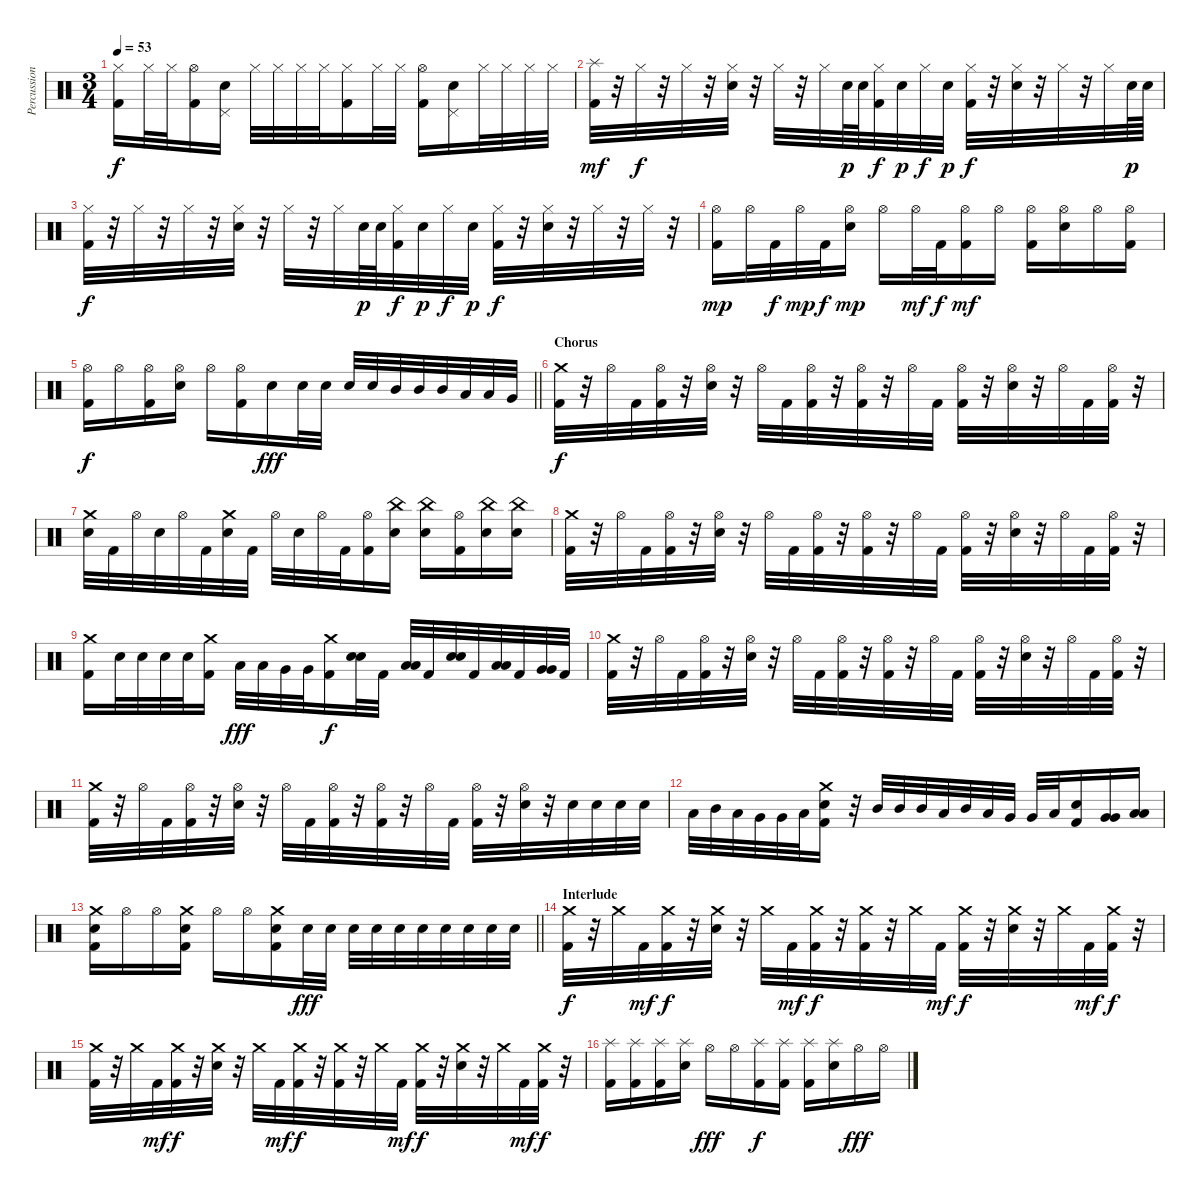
\track ("Percussion" "Percussion") {instrument percussion}
\staff {score}
\articulation defaults
\ts (3 4)
\tempo 53
\clef neutral
\ks c
("Hi-Hat (closed)" "Kick (hit) 2").16{dy f} "Hi-Hat (closed)".32 "Hi-Hat (closed)".32 ("Hi-Hat (open)" "Kick (hit) 2").16 ("Pedal Hi-Hat (hit)" "Snare (hit) 2").16 "Hi-Hat (closed)".32 "Hi-Hat (closed)".32 "Hi-Hat (closed)".32 "Hi-Hat (closed)".32 ("Hi-Hat (closed)" "Kick (hit) 2").16 "Hi-Hat (closed)".32 "Hi-Hat (closed)".32 ("Hi-Hat (open)" "Kick (hit) 2").16 ("Pedal Hi-Hat (hit)" "Snare (hit) 2").16 "Hi-Hat (closed)".32 "Hi-Hat (closed)".32 "Hi-Hat (closed)".32 "Hi-Hat (closed)".32 |
("Splash (hit)" "Kick (hit) 2").32{dy mf} r.32 "Hi-Hat (closed)".32{dy f} r.32 "Hi-Hat (closed)".32 r.32 ("Hi-Hat (closed)" "Snare (hit) 2").32 r.32 "Hi-Hat (closed)".32 r.32 "Hi-Hat (closed)".32 "Snare (hit) 2".64{dy p} "Snare (hit) 2".64 ("Hi-Hat (closed)" "Kick (hit) 2").32{dy f} "Snare (hit) 2".32{dy p} "Hi-Hat (closed)".32{dy f} "Snare (hit) 2".32{dy p} ("Hi-Hat (closed)" "Kick (hit) 2").32{dy f} r.32 ("Hi-Hat (closed)" "Snare (hit) 2").32 r.32 "Hi-Hat (closed)".32 r.32 "Hi-Hat (closed)".32 "Snare (hit) 2".64{dy p} "Snare (hit) 2".64 |
("Hi-Hat (closed)" "Kick (hit) 2").32{dy f} r.32 "Hi-Hat (closed)".32 r.32 "Hi-Hat (closed)".32 r.32 ("Hi-Hat (closed)" "Snare (hit) 2").32 r.32 "Hi-Hat (closed)".32 r.32 "Hi-Hat (closed)".32 "Snare (hit) 2".64{dy p} "Snare (hit) 2".64 ("Hi-Hat (closed)" "Kick (hit) 2").32{dy f} "Snare (hit) 2".32{dy p} "Hi-Hat (closed)".32{dy f} "Snare (hit) 2".32{dy p} ("Hi-Hat (closed)" "Kick (hit) 2").32{dy f} r.32 ("Hi-Hat (closed)" "Snare (hit) 2").32 r.32 "Hi-Hat (closed)".32 r.32 "Hi-Hat (closed)".32 r.32 |
("Hi-Hat (open)" "Kick (hit) 2").16{dy mp} "Hi-Hat (open)".32 "Kick (hit) 2".32{dy f} "Hi-Hat (open)".32{dy mp} "Kick (hit) 2".32{dy f} ("Hi-Hat (open)" "Snare (hit) 2").16{dy mp} "Hi-Hat (open)".16 "Hi-Hat (open)".32{dy mf} "Kick (hit) 2".32{dy f} ("Hi-Hat (open)" "Kick (hit) 2").16{dy mf} "Hi-Hat (open)".16 ("Hi-Hat (open)" "Kick (hit) 2").16 ("Hi-Hat (open)" "Snare (hit) 2").16 "Hi-Hat (open)".16 ("Hi-Hat (open)" "Kick (hit) 2").16 |
\barLineRight lightlight
("Hi-Hat (open)" "Kick (hit) 2").16{dy f} "Hi-Hat (open)".16 ("Hi-Hat (open)" "Kick (hit) 2").16 ("Hi-Hat (open)" "Snare (hit) 2").16 "Hi-Hat (open)".16 ("Hi-Hat (open)" "Kick (hit) 2").16 "Snare (hit) 2".16{dy fff} "Snare (hit) 2".32 "Snare (hit) 2".32 "Snare (hit) 2".32 "Snare (hit) 2".32 "Mid Tom (hit)".32 "Mid Tom (hit)".32 "Mid Tom (hit)".32 "Low Tom (hit)".32 "Low Tom (hit)".32 "Very Low Tom (hit)".32 |
\section ("" "Chorus")
("Crash medium (hit)" "Kick (hit) 2").32{dy f} r.32 "Hi-Hat (open)".32 "Kick (hit) 2".32 ("Hi-Hat (open)" "Kick (hit) 2").32 r.32 ("Hi-Hat (open)" "Snare (hit) 2").32 r.32 "Hi-Hat (open)".32 "Kick (hit) 2".32 ("Hi-Hat (open)" "Kick (hit) 2").32 r.32 ("Hi-Hat (open)" "Kick (hit) 2").32 r.32 "Hi-Hat (open)".32 "Kick (hit) 2".32 ("Hi-Hat (open)" "Kick (hit) 2").32 r.32 ("Hi-Hat (open)" "Snare (hit) 2").32 r.32 "Hi-Hat (open)".32 "Kick (hit) 2".32 ("Hi-Hat (open)" "Kick (hit) 2").32 r.32 |
("Crash medium (hit)" "Snare (hit) 2").32 "Kick (hit) 2".32 "Hi-Hat (open)".32 "Snare (hit) 2".32 "Hi-Hat (open)".32 "Kick (hit) 2".32 ("Crash medium (hit)" "Snare (hit) 2").32 "Kick (hit) 2".32 "Hi-Hat (open)".32 "Snare (hit) 2".32 "Hi-Hat (open)".32 "Kick (hit) 2".32 ("Hi-Hat (open)" "Kick (hit) 2").16 ("China (hit)" "Snare (hit) 2").16 ("China (hit)" "Snare (hit) 2").16 ("Hi-Hat (open)" "Kick (hit) 2").16 ("China (hit)" "Snare (hit) 2").16 ("China (hit)" "Snare (hit) 2").16 |
("Crash medium (hit)" "Kick (hit) 2").32 r.32 "Hi-Hat (open)".32 "Kick (hit) 2".32 ("Hi-Hat (open)" "Kick (hit) 2").32 r.32 ("Hi-Hat (open)" "Snare (hit) 2").32 r.32 "Hi-Hat (open)".32 "Kick (hit) 2".32 ("Hi-Hat (open)" "Kick (hit) 2").32 r.32 ("Hi-Hat (open)" "Kick (hit) 2").32 r.32 "Hi-Hat (open)".32 "Kick (hit) 2".32 ("Hi-Hat (open)" "Kick (hit) 2").32 r.32 ("Hi-Hat (open)" "Snare (hit) 2").32 r.32 "Hi-Hat (open)".32 "Kick (hit) 2".32 ("Hi-Hat (open)" "Kick (hit) 2").32 r.32 |
("Crash medium (hit)" "Kick (hit) 2").16 "Snare (hit) 2".32 "Snare (hit) 2".32 "Snare (hit) 2".32 "Snare (hit) 2".32 ("Crash medium (hit)" "Kick (hit) 2").16 "Low Tom (hit)".32{dy fff} "Low Tom (hit)".32 "Very Low Tom (hit)".32 "Very Low Tom (hit)".32 ("Crash medium (hit)" "Kick (hit) 2").16{dy f} ("Snare (hit) 2" "Snare (hit) 2").32 "Kick (hit) 2".32 ("Low Tom (hit)" "Low Tom (hit)").32 "Kick (hit) 2".32 ("Snare (hit) 2" "Snare (hit) 2").32 "Kick (hit) 2".32 ("Low Tom (hit)" "Low Tom (hit)").32 "Kick (hit) 2".32 ("Very Low Tom (hit)" "Very Low Tom (hit)").32 "Kick (hit) 2".32 |
("Crash medium (hit)" "Kick (hit) 2").32 r.32 "Hi-Hat (open)".32 "Kick (hit) 2".32 ("Hi-Hat (open)" "Kick (hit) 2").32 r.32 ("Hi-Hat (open)" "Snare (hit) 2").32 r.32 "Hi-Hat (open)".32 "Kick (hit) 2".32 ("Hi-Hat (open)" "Kick (hit) 2").32 r.32 ("Hi-Hat (open)" "Kick (hit) 2").32 r.32 "Hi-Hat (open)".32 "Kick (hit) 2".32 ("Hi-Hat (open)" "Kick (hit) 2").32 r.32 ("Hi-Hat (open)" "Snare (hit) 2").32 r.32 "Hi-Hat (open)".32 "Kick (hit) 2".32 ("Hi-Hat (open)" "Kick (hit) 2").32 r.32 |
("Crash medium (hit)" "Kick (hit) 2").32 r.32 "Hi-Hat (open)".32 "Kick (hit) 2".32 ("Hi-Hat (open)" "Kick (hit) 2").32 r.32 ("Hi-Hat (open)" "Snare (hit) 2").32 r.32 "Hi-Hat (open)".32 "Kick (hit) 2".32 ("Hi-Hat (open)" "Kick (hit) 2").32 r.32 ("Hi-Hat (open)" "Kick (hit) 2").32 r.32 "Hi-Hat (open)".32 "Kick (hit) 2".32 ("Hi-Hat (open)" "Kick (hit) 2").32 r.32 ("Hi-Hat (open)" "Snare (hit) 2").32 r.32 "Snare (hit) 2".32 "Snare (hit) 2".32 "Snare (hit) 2".32 "Snare (hit) 2".32 |
"Low Tom (hit)".32 "Mid Tom (hit)".32 "Low Tom (hit)".32 "Very Low Tom (hit)".32 "Very Low Tom (hit)".32 "Low Floor Tom (hit)".32 ("Crash medium (hit)" "Snare (hit) 2" "Kick (hit) 2").16 r.32 "Mid Tom (hit)".32 "Mid Tom (hit)".32 "Mid Tom (hit)".32 "Low Tom (hit)".32 "Mid Tom (hit)".32 "Low Tom (hit)".32 "Very Low Tom (hit)".32 "Very Low Tom (hit)".32 "Low Floor Tom (hit)".32 ("Snare (hit) 2" "Kick (hit) 2").16 ("Very Low Tom (hit)" "Very Low Tom (hit)").16 ("Low Tom (hit)" "Low Tom (hit)").16 |
\barLineRight lightlight
("Crash medium (hit)" "Snare (hit) 2" "Kick (hit) 2").16 "Hi-Hat (open)".16 "Hi-Hat (open)".16 ("Crash medium (hit)" "Snare (hit) 2" "Kick (hit) 2").16 "Hi-Hat (open)".16 "Hi-Hat (open)".16 ("Crash medium (hit)" "Snare (hit) 2" "Kick (hit) 2").16 "Snare (hit) 2".32{dy fff} "Snare (hit) 2".32 "Snare (hit) 2".32 "Snare (hit) 2".32 "Snare (hit) 2".32 "Snare (hit) 2".32 "Snare (hit) 2".32 "Snare (hit) 2".32 "Snare (hit) 2".32 "Snare (hit) 2".32 |
\section ("" "Interlude")
("Crash medium (hit)" "Kick (hit) 2").32{dy f} r.32 "Crash medium (hit)".32 "Kick (hit) 2".32{dy mf} ("Crash medium (hit)" "Kick (hit) 2").32{dy f} r.32 ("Crash medium (hit)" "Snare (hit) 2").32 r.32 "Crash medium (hit)".32 "Kick (hit) 2".32{dy mf} ("Crash medium (hit)" "Kick (hit) 2").32{dy f} r.32 ("Crash medium (hit)" "Kick (hit) 2").32 r.32 "Crash medium (hit)".32 "Kick (hit) 2".32{dy mf} ("Crash medium (hit)" "Kick (hit) 2").32{dy f} r.32 ("Crash medium (hit)" "Snare (hit) 2").32 r.32 "Crash medium (hit)".32 "Kick (hit) 2".32{dy mf} ("Crash medium (hit)" "Kick (hit) 2").32{dy f} r.32 |
("Crash medium (hit)" "Kick (hit) 2").32 r.32 "Crash medium (hit)".32 "Kick (hit) 2".32{dy mf} ("Crash medium (hit)" "Kick (hit) 2").32{dy f} r.32 ("Crash medium (hit)" "Snare (hit) 2").32 r.32 "Crash medium (hit)".32 "Kick (hit) 2".32{dy mf} ("Crash medium (hit)" "Kick (hit) 2").32{dy f} r.32 ("Crash medium (hit)" "Kick (hit) 2").32 r.32 "Crash medium (hit)".32 "Kick (hit) 2".32{dy mf} ("Crash medium (hit)" "Kick (hit) 2").32{dy f} r.32 ("Crash medium (hit)" "Snare (hit) 2").32 r.32 "Crash medium (hit)".32 "Kick (hit) 2".32{dy mf} ("Crash medium (hit)" "Kick (hit) 2").32{dy f} r.32 |
("Splash (hit)" "Kick (hit) 2").16 ("Splash (hit)" "Kick (hit) 2").16 ("Splash (hit)" "Kick (hit) 2").16 ("Splash (hit)" "Snare (hit) 2").16 "Hi-Hat (open)".16{dy fff} "Hi-Hat (open)".16 ("Splash (hit)" "Kick (hit) 2").16{dy f} ("Splash (hit)" "Kick (hit) 2").16 ("Splash (hit)" "Kick (hit) 2").16 ("Splash (hit)" "Snare (hit) 2").16 "Hi-Hat (open)".16{dy fff} "Hi-Hat (open)".16
